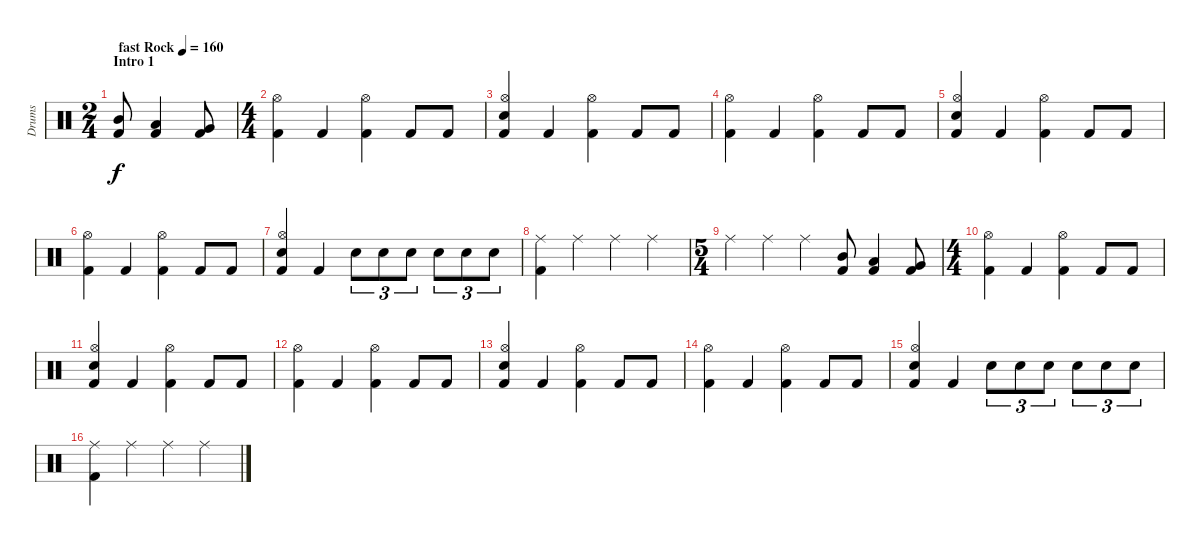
\track ("Drums" "Drums") {instrument percussion}
\staff {score}
\articulation defaults
\ts (2 4)
\section ("" "Intro 1")
\tempo (160 "fast Rock")
\clef neutral
\ks c
("Mid Tom (hit)" "Kick (hit) 2").8{dy f} ("Low Tom (hit)" "Kick (hit) 2").4 ("Very Low Tom (hit)" "Kick (hit) 2").8 |
\ts (4 4)
("Hi-Hat (open)" "Kick (hit) 2").4 "Kick (hit) 2".4 ("Hi-Hat (open)" "Kick (hit) 2").4 "Kick (hit) 2".8 "Kick (hit) 2".8 |
("Hi-Hat (open)" "Electric Snare (hit)" "Kick (hit) 2").4 "Kick (hit) 2".4 ("Hi-Hat (open)" "Kick (hit) 2").4 "Kick (hit) 2".8 "Kick (hit) 2".8 |
("Hi-Hat (open)" "Kick (hit) 2").4 "Kick (hit) 2".4 ("Hi-Hat (open)" "Kick (hit) 2").4 "Kick (hit) 2".8 "Kick (hit) 2".8 |
("Hi-Hat (open)" "Electric Snare (hit)" "Kick (hit) 2").4 "Kick (hit) 2".4 ("Hi-Hat (open)" "Kick (hit) 2").4 "Kick (hit) 2".8 "Kick (hit) 2".8 |
("Hi-Hat (open)" "Kick (hit) 2").4 "Kick (hit) 2".4 ("Hi-Hat (open)" "Kick (hit) 2").4 "Kick (hit) 2".8 "Kick (hit) 2".8 |
("Hi-Hat (open)" "Electric Snare (hit)" "Kick (hit) 2").4 "Kick (hit) 2".4 "Snare (hit) 2".8{tu (3 2)} "Snare (hit) 2".8{tu (3 2)} "Snare (hit) 2".8{tu (3 2)} "Snare (hit) 2".8{tu (3 2)} "Snare (hit) 2".8{tu (3 2)} "Snare (hit) 2".8{tu (3 2)} |
("Ride (middle)" "Kick (hit) 2").4 "Ride (middle)".4 "Ride (middle)".4 "Ride (middle)".4 |
\ts (5 4)
"Ride (middle)".4 "Ride (middle)".4 "Ride (middle)".4 ("Mid Tom (hit)" "Kick (hit) 2").8 ("Low Tom (hit)" "Kick (hit) 2").4 ("Very Low Tom (hit)" "Kick (hit) 2").8 |
\ts (4 4)
("Hi-Hat (open)" "Kick (hit) 2").4 "Kick (hit) 2".4 ("Hi-Hat (open)" "Kick (hit) 2").4 "Kick (hit) 2".8 "Kick (hit) 2".8 |
("Hi-Hat (open)" "Electric Snare (hit)" "Kick (hit) 2").4 "Kick (hit) 2".4 ("Hi-Hat (open)" "Kick (hit) 2").4 "Kick (hit) 2".8 "Kick (hit) 2".8 |
("Hi-Hat (open)" "Kick (hit) 2").4 "Kick (hit) 2".4 ("Hi-Hat (open)" "Kick (hit) 2").4 "Kick (hit) 2".8 "Kick (hit) 2".8 |
("Hi-Hat (open)" "Electric Snare (hit)" "Kick (hit) 2").4 "Kick (hit) 2".4 ("Hi-Hat (open)" "Kick (hit) 2").4 "Kick (hit) 2".8 "Kick (hit) 2".8 |
("Hi-Hat (open)" "Kick (hit) 2").4 "Kick (hit) 2".4 ("Hi-Hat (open)" "Kick (hit) 2").4 "Kick (hit) 2".8 "Kick (hit) 2".8 |
("Hi-Hat (open)" "Electric Snare (hit)" "Kick (hit) 2").4 "Kick (hit) 2".4 "Snare (hit) 2".8{tu (3 2)} "Snare (hit) 2".8{tu (3 2)} "Snare (hit) 2".8{tu (3 2)} "Snare (hit) 2".8{tu (3 2)} "Snare (hit) 2".8{tu (3 2)} "Snare (hit) 2".8{tu (3 2)} |
("Ride (middle)" "Kick (hit) 2").4 "Ride (middle)".4 "Ride (middle)".4 "Ride (middle)".4
